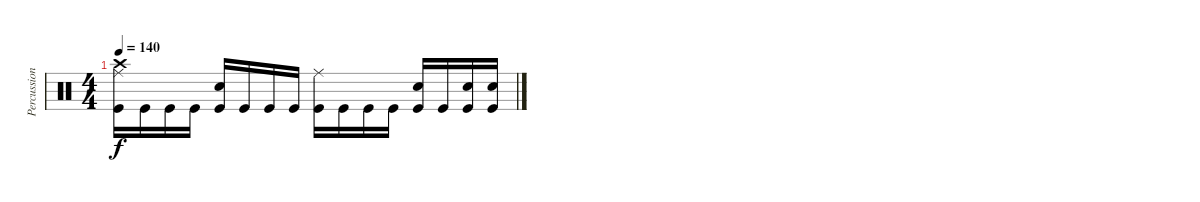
\track ("Percussion" "Percussion") {instrument percussion}
\staff {score}
\articulation defaults
\ts (4 4)
\tempo 140
\clef neutral
\ks c
("Ride (middle)" "Crash high (hit)" "Kick (hit)").16{dy f volume 0} "Kick (hit)".16 "Kick (hit)".16 "Kick (hit)".16 ("Snare (hit) 2" "Kick (hit)").16 "Kick (hit)".16 "Kick (hit)".16 "Kick (hit)".16 ("Ride (middle)" "Kick (hit)").16 "Kick (hit)".16 "Kick (hit)".16 "Kick (hit)".16 ("Snare (hit) 2" "Kick (hit)").16 "Kick (hit)".16 ("Snare (hit) 2" "Kick (hit)").16 ("Snare (hit) 2" "Kick (hit)").16
